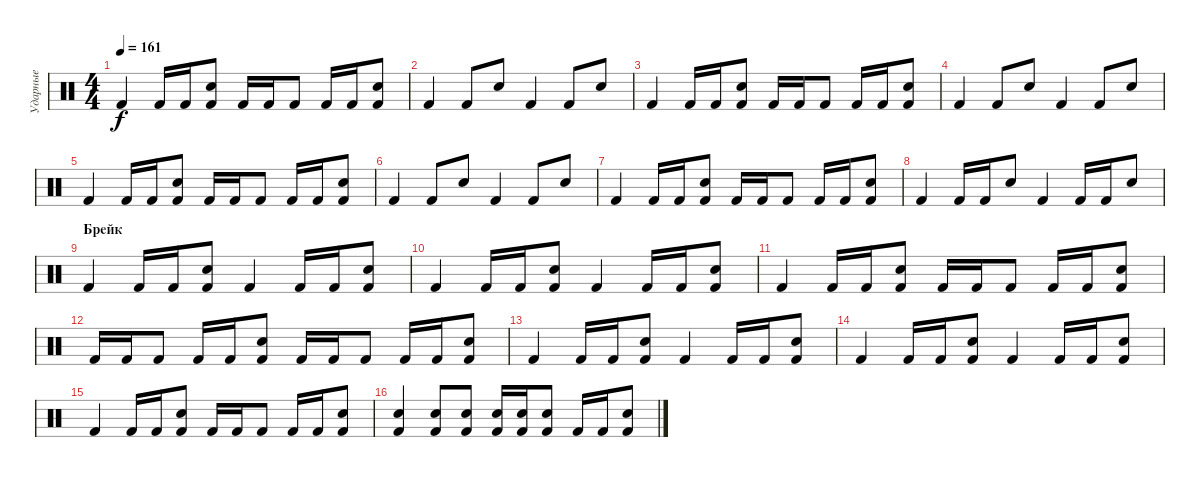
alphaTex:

\track ("Ударные" "Ударные") {instrument percussion}
\staff {score}
\articulation defaults
\ts (4 4)
\tempo 161
\clef neutral
\ks c "Kick (hit) 2".4{dy f} "Kick (hit) 2".16 "Kick (hit) 2".16
("Snare (hit) 2" "Kick (hit) 2").8 "Kick (hit) 2".16 "Kick (hit) 2".16 "Kick (hit) 2".8 "Kick (hit) 2".16 "Kick (hit) 2".16 ("Snare (hit) 2" "Kick (hit) 2").8 |
"Kick (hit) 2".4 "Kick (hit) 2".8 "Snare (hit) 2".8 "Kick (hit) 2".4 "Kick (hit) 2".8 "Snare (hit) 2".8 |
"Kick (hit) 2".4 "Kick (hit) 2".16 "Kick (hit) 2".16 ("Snare (hit) 2" "Kick (hit) 2").8 "Kick (hit) 2".16 "Kick (hit) 2".16 "Kick (hit) 2".8 "Kick (hit) 2".16 "Kick (hit) 2".16 ("Snare (hit) 2" "Kick (hit) 2").8 |
"Kick (hit) 2".4 "Kick (hit) 2".8 "Snare (hit) 2".8 "Kick (hit) 2".4 "Kick (hit) 2".8 "Snare (hit) 2".8 |
"Kick (hit) 2".4 "Kick (hit) 2".16 "Kick (hit) 2".16 ("Snare (hit) 2" "Kick (hit) 2").8 "Kick (hit) 2".16 "Kick (hit) 2".16 "Kick (hit) 2".8 "Kick (hit) 2".16 "Kick (hit) 2".16 ("Snare (hit) 2" "Kick (hit) 2").8 |
"Kick (hit) 2".4 "Kick (hit) 2".8 "Snare (hit) 2".8 "Kick (hit) 2".4 "Kick (hit) 2".8 "Snare (hit) 2".8 |
"Kick (hit) 2".4 "Kick (hit) 2".16 "Kick (hit) 2".16 ("Snare (hit) 2" "Kick (hit) 2").8 "Kick (hit) 2".16 "Kick (hit) 2".16 "Kick (hit) 2".8 "Kick (hit) 2".16 "Kick (hit) 2".16 ("Snare (hit) 2" "Kick (hit) 2").8 |
"Kick (hit) 2".4 "Kick (hit) 2".16 "Kick (hit) 2".16 "Snare (hit) 2".8 "Kick (hit) 2".4 "Kick (hit) 2".16 "Kick (hit) 2".16 "Snare (hit) 2".8 |
\section ("" "Брейк")
"Kick (hit) 2".4 "Kick (hit) 2".16 "Kick (hit) 2".16 ("Snare (hit) 2" "Kick (hit) 2").8 "Kick (hit) 2".4 "Kick (hit) 2".16 "Kick (hit) 2".16 ("Snare (hit) 2" "Kick (hit) 2").8 |
"Kick (hit) 2".4 "Kick (hit) 2".16 "Kick (hit) 2".16 ("Snare (hit) 2" "Kick (hit) 2").8 "Kick (hit) 2".4 "Kick (hit) 2".16 "Kick (hit) 2".16 ("Snare (hit) 2" "Kick (hit) 2").8 |
"Kick (hit) 2".4 "Kick (hit) 2".16 "Kick (hit) 2".16 ("Snare (hit) 2" "Kick (hit) 2").8 "Kick (hit) 2".16 "Kick (hit) 2".16 "Kick (hit) 2".8 "Kick (hit) 2".16 "Kick (hit) 2".16 ("Snare (hit) 2" "Kick (hit) 2").8 |
"Kick (hit) 2".16 "Kick (hit) 2".16 "Kick (hit) 2".8 "Kick (hit) 2".16 "Kick (hit) 2".16 ("Snare (hit) 2" "Kick (hit) 2").8 "Kick (hit) 2".16 "Kick (hit) 2".16 "Kick (hit) 2".8 "Kick (hit) 2".16 "Kick (hit) 2".16 ("Snare (hit) 2" "Kick (hit) 2").8 |
"Kick (hit) 2".4 "Kick (hit) 2".16 "Kick (hit) 2".16 ("Snare (hit) 2" "Kick (hit) 2").8 "Kick (hit) 2".4 "Kick (hit) 2".16 "Kick (hit) 2".16 ("Snare (hit) 2" "Kick (hit) 2").8 |
"Kick (hit) 2".4 "Kick (hit) 2".16 "Kick (hit) 2".16 ("Snare (hit) 2" "Kick (hit) 2").8 "Kick (hit) 2".4 "Kick (hit) 2".16 "Kick (hit) 2".16 ("Snare (hit) 2" "Kick (hit) 2").8 |
"Kick (hit) 2".4 "Kick (hit) 2".16 "Kick (hit) 2".16 ("Snare (hit) 2" "Kick (hit) 2").8 "Kick (hit) 2".16 "Kick (hit) 2".16 "Kick (hit) 2".8 "Kick (hit) 2".16 "Kick (hit) 2".16 ("Snare (hit) 2" "Kick (hit) 2").8 |
("Snare (hit) 2" "Kick (hit) 2").4 ("Snare (hit) 2" "Kick (hit) 2").8 ("Snare (hit) 2" "Kick (hit) 2").8 ("Snare (hit) 2" "Kick (hit) 2").16 ("Snare (hit) 2" "Kick (hit) 2").16 ("Snare (hit) 2" "Kick (hit) 2").8 "Kick (hit) 2".16 "Kick (hit) 2".16 ("Snare (hit) 2" "Kick (hit) 2").8
